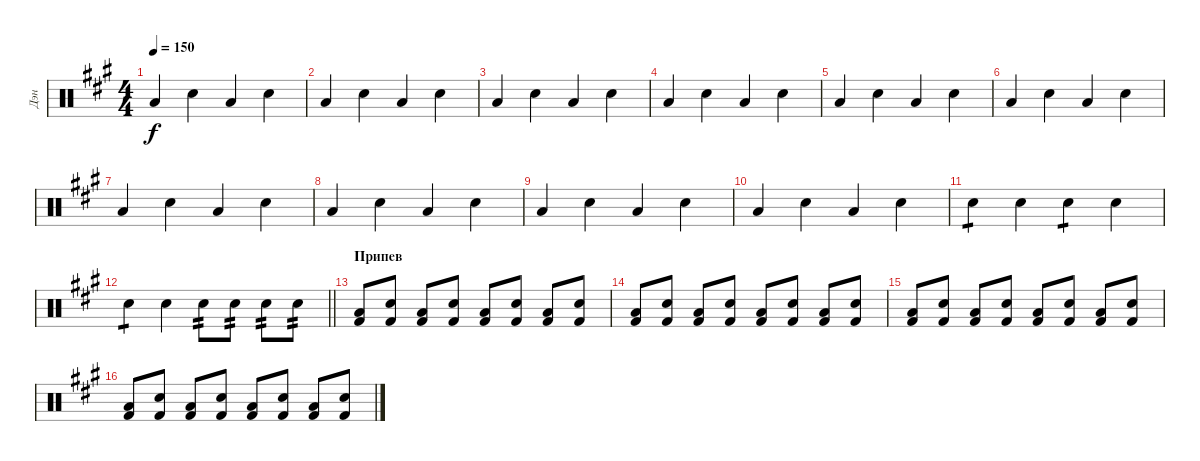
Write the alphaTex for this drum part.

\track ("Дэн" "Дэн") {instrument percussion}
\staff {score}
\articulation defaults
\ts (4 4)
\tempo 150
\clef neutral
\ks f#minor "Low Tom (hit)".4{dy f} "Snare (hit) 2".4 "Low Tom (hit)".4 "Snare (hit) 2".4
|
"Low Tom (hit)".4 "Snare (hit) 2".4 "Low Tom (hit)".4 "Snare (hit) 2".4 |
"Low Tom (hit)".4 "Snare (hit) 2".4 "Low Tom (hit)".4 "Snare (hit) 2".4 |
"Low Tom (hit)".4 "Snare (hit) 2".4 "Low Tom (hit)".4 "Snare (hit) 2".4 |
"Low Tom (hit)".4 "Snare (hit) 2".4 "Low Tom (hit)".4 "Snare (hit) 2".4 |
"Low Tom (hit)".4 "Snare (hit) 2".4 "Low Tom (hit)".4 "Snare (hit) 2".4 |
"Low Tom (hit)".4 "Snare (hit) 2".4 "Low Tom (hit)".4 "Snare (hit) 2".4 |
"Low Tom (hit)".4 "Snare (hit) 2".4 "Low Tom (hit)".4 "Snare (hit) 2".4 |
"Low Tom (hit)".4 "Snare (hit) 2".4 "Low Tom (hit)".4 "Snare (hit) 2".4 |
"Low Tom (hit)".4 "Snare (hit) 2".4 "Low Tom (hit)".4 "Snare (hit) 2".4 |
"Snare (hit) 2".4{tp 1} "Snare (hit) 2".4 "Snare (hit) 2".4{tp 1} "Snare (hit) 2".4 |
\barLineRight lightlight "Snare (hit) 2".4{tp 1} "Snare (hit) 2".4 "Snare (hit) 2".8{tp 2} "Snare (hit) 2".8{tp 2} "Snare (hit) 2".8{tp 2} "Snare (hit) 2".8{tp 2}
|
\section ("" "Припев")
("Low Tom (hit)" "Kick (hit) 2").8 ("Snare (hit) 2" "Kick (hit) 2").8 ("Low Tom (hit)" "Kick (hit) 2").8 ("Snare (hit) 2" "Kick (hit) 2").8 ("Low Tom (hit)" "Kick (hit) 2").8 ("Snare (hit) 2" "Kick (hit) 2").8 ("Low Tom (hit)" "Kick (hit) 2").8 ("Snare (hit) 2" "Kick (hit) 2").8 |
("Low Tom (hit)" "Kick (hit) 2").8 ("Snare (hit) 2" "Kick (hit) 2").8 ("Low Tom (hit)" "Kick (hit) 2").8 ("Snare (hit) 2" "Kick (hit) 2").8 ("Low Tom (hit)" "Kick (hit) 2").8 ("Snare (hit) 2" "Kick (hit) 2").8 ("Low Tom (hit)" "Kick (hit) 2").8 ("Snare (hit) 2" "Kick (hit) 2").8 |
("Low Tom (hit)" "Kick (hit) 2").8 ("Snare (hit) 2" "Kick (hit) 2").8 ("Low Tom (hit)" "Kick (hit) 2").8 ("Snare (hit) 2" "Kick (hit) 2").8 ("Low Tom (hit)" "Kick (hit) 2").8 ("Snare (hit) 2" "Kick (hit) 2").8 ("Low Tom (hit)" "Kick (hit) 2").8 ("Snare (hit) 2" "Kick (hit) 2").8 |
("Low Tom (hit)" "Kick (hit) 2").8 ("Snare (hit) 2" "Kick (hit) 2").8 ("Low Tom (hit)" "Kick (hit) 2").8 ("Snare (hit) 2" "Kick (hit) 2").8 ("Low Tom (hit)" "Kick (hit) 2").8 ("Snare (hit) 2" "Kick (hit) 2").8 ("Low Tom (hit)" "Kick (hit) 2").8 ("Snare (hit) 2" "Kick (hit) 2").8
